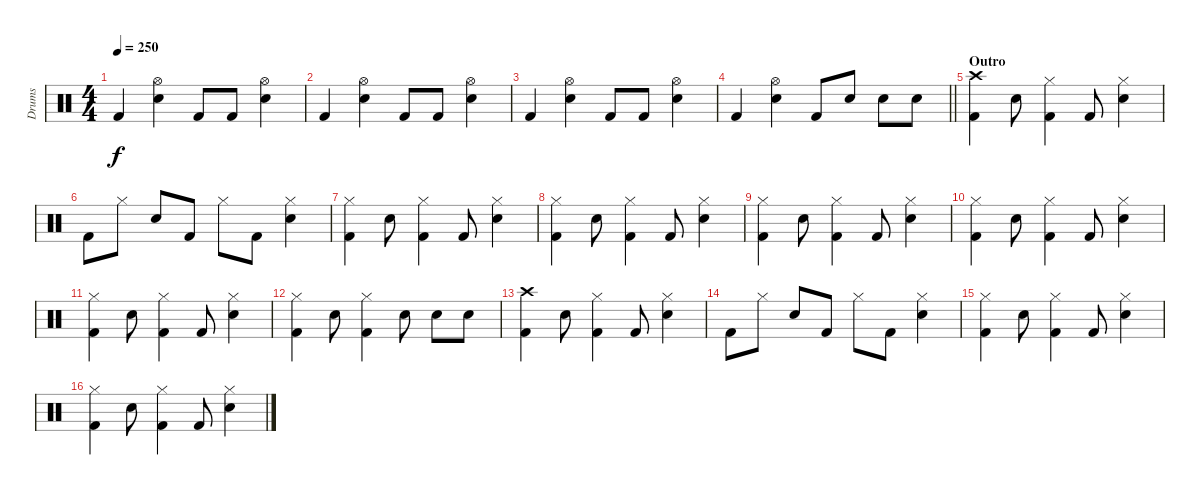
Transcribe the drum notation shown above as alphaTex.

\track ("Drums" "Drums") {instrument percussion}
\staff {score}
\articulation defaults
\ts (4 4)
\tempo 250
\clef neutral
\ks c "Kick (hit) 2".4{dy f}
("Hi-Hat (open)" "Snare (hit) 2").4 "Kick (hit) 2".8 "Kick (hit) 2".8 ("Hi-Hat (open)" "Snare (hit) 2").4 |
"Kick (hit) 2".4 ("Hi-Hat (open)" "Snare (hit) 2").4 "Kick (hit) 2".8 "Kick (hit) 2".8 ("Hi-Hat (open)" "Snare (hit) 2").4 |
"Kick (hit) 2".4 ("Hi-Hat (open)" "Snare (hit) 2").4 "Kick (hit) 2".8 "Kick (hit) 2".8 ("Hi-Hat (open)" "Snare (hit) 2").4 |
\barLineRight lightlight "Kick (hit) 2".4
("Hi-Hat (open)" "Snare (hit) 2").4 "Kick (hit) 2".8 "Snare (hit) 2".8 "Snare (hit) 2".8 "Snare (hit) 2".8 |
\section ("" "Outro")
("Crash high (hit)" "Kick (hit) 2").4 "Snare (hit) 2".8 ("Hi-Hat (closed)" "Kick (hit) 2").4 "Kick (hit) 2".8 ("Hi-Hat (closed)" "Snare (hit) 2").4 |
"Kick (hit) 2".8 "Hi-Hat (closed)".8 "Snare (hit) 2".8 "Kick (hit) 2".8 "Hi-Hat (closed)".8 "Kick (hit) 2".8 ("Hi-Hat (closed)" "Snare (hit) 2").4 |
("Hi-Hat (closed)" "Kick (hit) 2").4 "Snare (hit) 2".8 ("Hi-Hat (closed)" "Kick (hit) 2").4 "Kick (hit) 2".8 ("Hi-Hat (closed)" "Snare (hit) 2").4 |
("Hi-Hat (closed)" "Kick (hit) 2").4 "Snare (hit) 2".8 ("Hi-Hat (closed)" "Kick (hit) 2").4 "Kick (hit) 2".8 ("Hi-Hat (closed)" "Snare (hit) 2").4 |
("Hi-Hat (closed)" "Kick (hit) 2").4 "Snare (hit) 2".8 ("Hi-Hat (closed)" "Kick (hit) 2").4 "Kick (hit) 2".8 ("Hi-Hat (closed)" "Snare (hit) 2").4 |
("Hi-Hat (closed)" "Kick (hit) 2").4 "Snare (hit) 2".8 ("Hi-Hat (closed)" "Kick (hit) 2").4 "Kick (hit) 2".8 ("Hi-Hat (closed)" "Snare (hit) 2").4 |
("Hi-Hat (closed)" "Kick (hit) 2").4 "Snare (hit) 2".8 ("Hi-Hat (closed)" "Kick (hit) 2").4 "Kick (hit) 2".8 ("Hi-Hat (closed)" "Snare (hit) 2").4 |
("Hi-Hat (closed)" "Kick (hit) 2").4 "Snare (hit) 2".8 ("Hi-Hat (closed)" "Kick (hit) 2").4 "Snare (hit) 2".8 "Snare (hit) 2".8 "Snare (hit) 2".8 |
("Crash high (hit)" "Kick (hit) 2").4 "Snare (hit) 2".8 ("Hi-Hat (closed)" "Kick (hit) 2").4 "Kick (hit) 2".8 ("Hi-Hat (closed)" "Snare (hit) 2").4 |
"Kick (hit) 2".8 "Hi-Hat (closed)".8 "Snare (hit) 2".8 "Kick (hit) 2".8 "Hi-Hat (closed)".8 "Kick (hit) 2".8 ("Hi-Hat (closed)" "Snare (hit) 2").4 |
("Hi-Hat (closed)" "Kick (hit) 2").4 "Snare (hit) 2".8 ("Hi-Hat (closed)" "Kick (hit) 2").4 "Kick (hit) 2".8 ("Hi-Hat (closed)" "Snare (hit) 2").4 |
("Hi-Hat (closed)" "Kick (hit) 2").4 "Snare (hit) 2".8 ("Hi-Hat (closed)" "Kick (hit) 2").4 "Kick (hit) 2".8 ("Hi-Hat (closed)" "Snare (hit) 2").4
